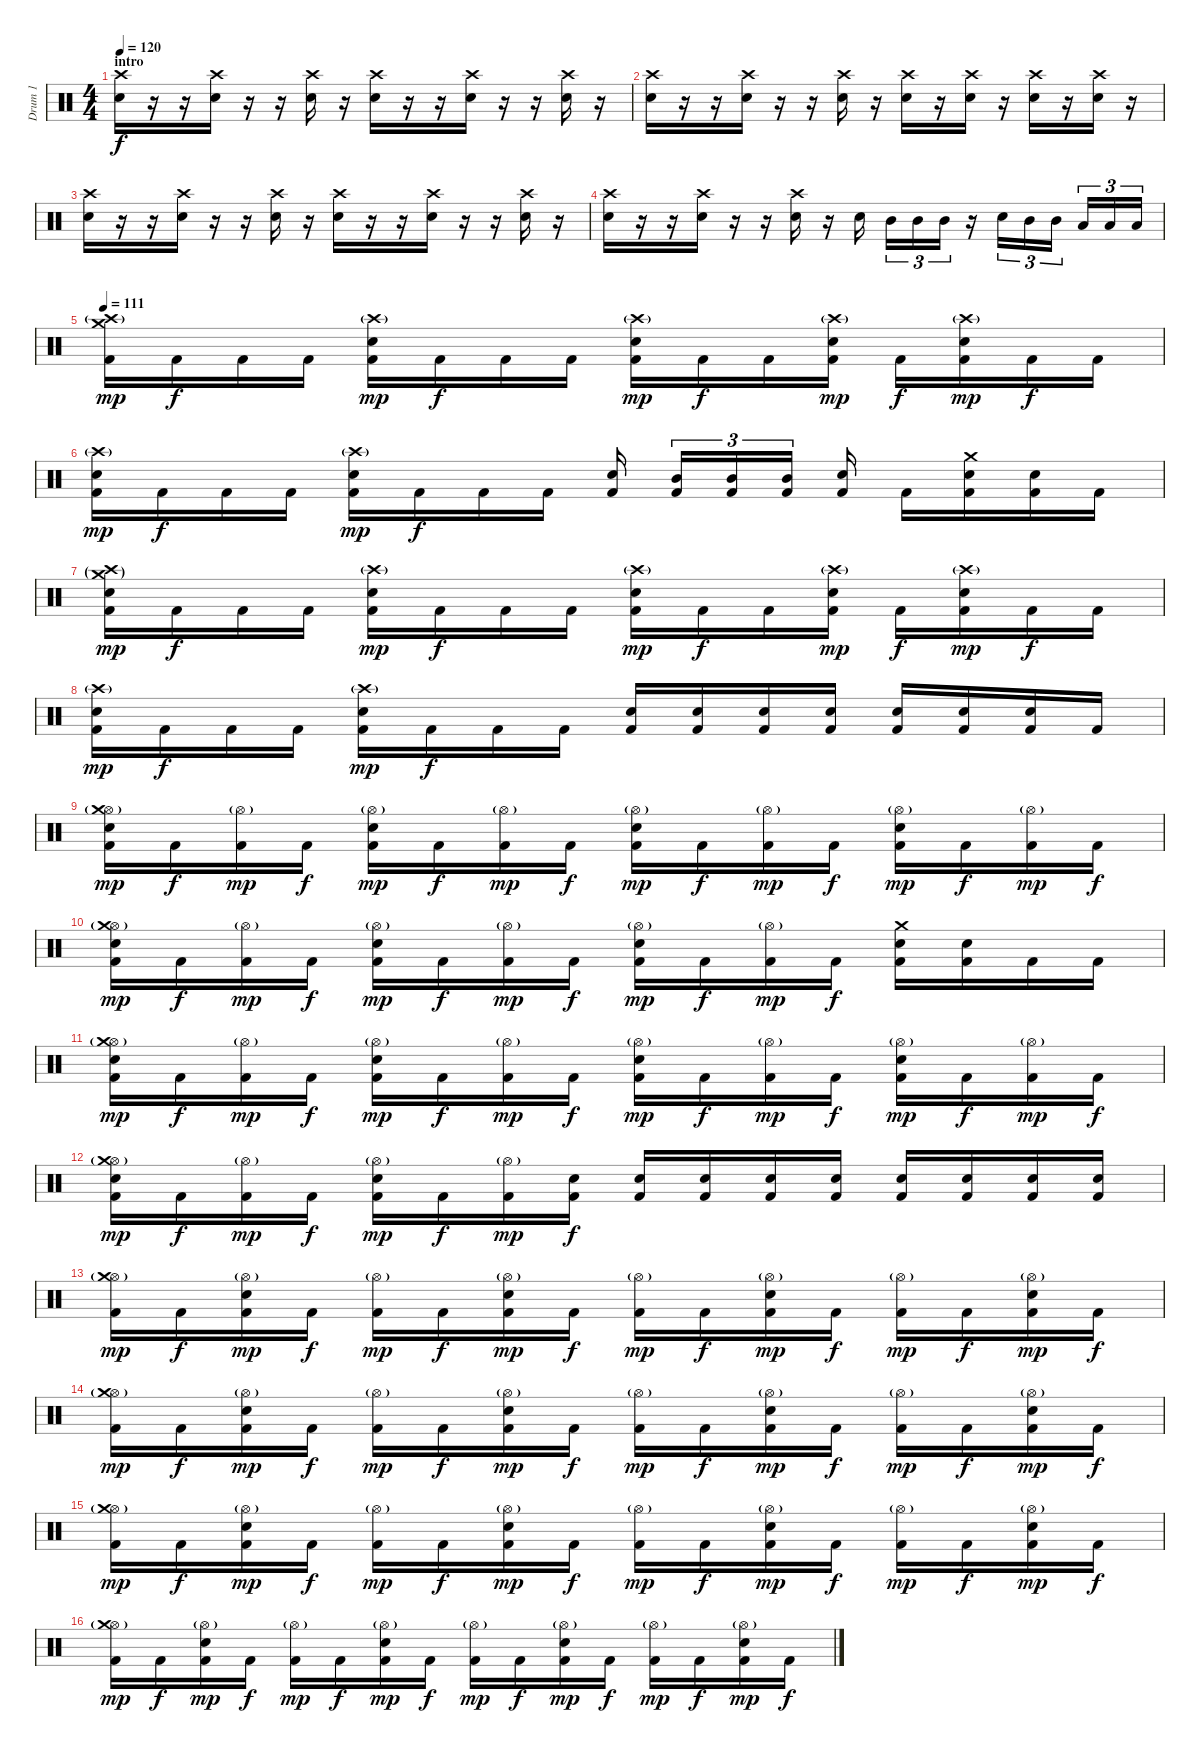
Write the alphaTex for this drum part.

\track ("Drum 1" "Drum 1") {instrument percussion}
\staff {score}
\articulation defaults
\ts (4 4)
\section ("" "intro")
\tempo 120
\clef neutral
\ks c
("Crash high (hit)" "Electric Snare (hit)").16{dy f} r.16 r.16 ("Crash high (hit)" "Electric Snare (hit)").16 r.16 r.16 ("Crash high (hit)" "Electric Snare (hit)").16 r.16 ("Crash high (hit)" "Electric Snare (hit)").16 r.16 r.16 ("Crash high (hit)" "Electric Snare (hit)").16 r.16 r.16 ("Crash high (hit)" "Electric Snare (hit)").16 r.16 |
("Crash high (hit)" "Electric Snare (hit)").16 r.16 r.16 ("Crash high (hit)" "Electric Snare (hit)").16 r.16 r.16 ("Crash high (hit)" "Electric Snare (hit)").16 r.16 ("Crash high (hit)" "Electric Snare (hit)").16 r.16 ("Crash high (hit)" "Electric Snare (hit)").16 r.16 ("Crash high (hit)" "Electric Snare (hit)").16 r.16 ("Crash high (hit)" "Electric Snare (hit)").16 r.16 |
("Crash high (hit)" "Electric Snare (hit)").16 r.16 r.16 ("Crash high (hit)" "Electric Snare (hit)").16 r.16 r.16 ("Crash high (hit)" "Electric Snare (hit)").16 r.16 ("Crash high (hit)" "Electric Snare (hit)").16 r.16 r.16 ("Crash high (hit)" "Electric Snare (hit)").16 r.16 r.16 ("Crash high (hit)" "Electric Snare (hit)").16 r.16 |
("Crash high (hit)" "Electric Snare (hit)").16 r.16 r.16 ("Crash high (hit)" "Electric Snare (hit)").16 r.16 r.16 ("Crash high (hit)" "Electric Snare (hit)").16 r.16 "Electric Snare (hit)".16 "Mid Tom (hit)".16{tu (3 2)} "Mid Tom (hit)".16{tu (3 2)} "Mid Tom (hit)".16{tu (3 2)} r.16 "Electric Snare (hit)".16{tu (3 2)} "Mid Tom (hit)".16{tu (3 2)} "Mid Tom (hit)".16{tu (3 2)} "Low Tom (hit)".16{tu (3 2)} "Low Tom (hit)".16{tu (3 2)} "Low Tom (hit)".16{tu (3 2)} |
\tempo 111
("Kick (hit) 2" "Crash high (hit)"{g} "Crash medium (hit)").16{dy mp} "Kick (hit) 2".16{dy f} "Kick (hit) 2".16 "Kick (hit) 2".16 ("Kick (hit) 2" "Crash high (hit)"{g} "Electric Snare (hit)").16{dy mp} "Kick (hit) 2".16{dy f} "Kick (hit) 2".16 "Kick (hit) 2".16 ("Kick (hit) 2" "Crash high (hit)"{g} "Electric Snare (hit)").16{dy mp} "Kick (hit) 2".16{dy f} "Kick (hit) 2".16 ("Kick (hit) 2" "Crash high (hit)"{g} "Electric Snare (hit)").16{dy mp} "Kick (hit) 2".16{dy f} ("Kick (hit) 2" "Crash high (hit)"{g} "Electric Snare (hit)").16{dy mp} "Kick (hit) 2".16{dy f} "Kick (hit) 2".16 |
("Kick (hit) 2" "Crash high (hit)"{g} "Electric Snare (hit)").16{dy mp} "Kick (hit) 2".16{dy f} "Kick (hit) 2".16 "Kick (hit) 2".16 ("Kick (hit) 2" "Crash high (hit)"{g} "Electric Snare (hit)").16{dy mp} "Kick (hit) 2".16{dy f} "Kick (hit) 2".16 "Kick (hit) 2".16 ("Kick (hit) 2" "Electric Snare (hit)").16 ("Kick (hit) 2" "Mid Tom (hit)").16{tu (3 2)} ("Kick (hit) 2" "Mid Tom (hit)").16{tu (3 2)} ("Kick (hit) 2" "Mid Tom (hit)").16{tu (3 2)} ("Kick (hit) 2" "Electric Snare (hit)").16 "Kick (hit) 2".16 ("Kick (hit) 2" "Crash medium (hit)" "Electric Snare (hit)").16 ("Kick (hit) 2" "Electric Snare (hit)").16 "Kick (hit) 2".16 |
("Kick (hit) 2" "Crash high (hit)"{g} "Crash medium (hit)"{g} "Electric Snare (hit)").16{dy mp} "Kick (hit) 2".16{dy f} "Kick (hit) 2".16 "Kick (hit) 2".16 ("Kick (hit) 2" "Crash high (hit)"{g} "Electric Snare (hit)").16{dy mp} "Kick (hit) 2".16{dy f} "Kick (hit) 2".16 "Kick (hit) 2".16 ("Kick (hit) 2" "Crash high (hit)"{g} "Electric Snare (hit)").16{dy mp} "Kick (hit) 2".16{dy f} "Kick (hit) 2".16 ("Kick (hit) 2" "Crash high (hit)"{g} "Electric Snare (hit)").16{dy mp} "Kick (hit) 2".16{dy f} ("Kick (hit) 2" "Crash high (hit)"{g} "Electric Snare (hit)").16{dy mp} "Kick (hit) 2".16{dy f} "Kick (hit) 2".16 |
("Kick (hit) 2" "Crash high (hit)"{g} "Electric Snare (hit)").16{dy mp} "Kick (hit) 2".16{dy f} "Kick (hit) 2".16 "Kick (hit) 2".16 ("Kick (hit) 2" "Crash high (hit)"{g} "Electric Snare (hit)").16{dy mp} "Kick (hit) 2".16{dy f} "Kick (hit) 2".16 "Kick (hit) 2".16 ("Kick (hit) 2" "Electric Snare (hit)").16 ("Kick (hit) 2" "Electric Snare (hit)").16 ("Kick (hit) 2" "Electric Snare (hit)").16 ("Kick (hit) 2" "Electric Snare (hit)").16 ("Kick (hit) 2" "Electric Snare (hit)").16 ("Kick (hit) 2" "Electric Snare (hit)").16 ("Kick (hit) 2" "Electric Snare (hit)").16 "Kick (hit) 2".16 |
("Kick (hit) 2" "Hi-Hat (open)"{g} "Crash medium (hit)" "Electric Snare (hit)").16{dy mp} "Kick (hit) 2".16{dy f} ("Kick (hit) 2" "Hi-Hat (open)"{g}).16{dy mp} "Kick (hit) 2".16{dy f} ("Kick (hit) 2" "Hi-Hat (open)"{g} "Electric Snare (hit)").16{dy mp} "Kick (hit) 2".16{dy f} ("Kick (hit) 2" "Hi-Hat (open)"{g}).16{dy mp} "Kick (hit) 2".16{dy f} ("Kick (hit) 2" "Hi-Hat (open)"{g} "Electric Snare (hit)").16{dy mp} "Kick (hit) 2".16{dy f} ("Kick (hit) 2" "Hi-Hat (open)"{g}).16{dy mp} "Kick (hit) 2".16{dy f} ("Kick (hit) 2" "Hi-Hat (open)"{g} "Electric Snare (hit)").16{dy mp} "Kick (hit) 2".16{dy f} ("Kick (hit) 2" "Hi-Hat (open)"{g}).16{dy mp} "Kick (hit) 2".16{dy f} |
("Kick (hit) 2" "Hi-Hat (open)"{g} "Crash medium (hit)" "Electric Snare (hit)").16{dy mp} "Kick (hit) 2".16{dy f} ("Kick (hit) 2" "Hi-Hat (open)"{g}).16{dy mp} "Kick (hit) 2".16{dy f} ("Kick (hit) 2" "Hi-Hat (open)"{g} "Electric Snare (hit)").16{dy mp} "Kick (hit) 2".16{dy f} ("Kick (hit) 2" "Hi-Hat (open)"{g}).16{dy mp} "Kick (hit) 2".16{dy f} ("Kick (hit) 2" "Hi-Hat (open)"{g} "Electric Snare (hit)").16{dy mp} "Kick (hit) 2".16{dy f} ("Kick (hit) 2" "Hi-Hat (open)"{g}).16{dy mp} "Kick (hit) 2".16{dy f} ("Kick (hit) 2" "Crash medium (hit)" "Electric Snare (hit)").16 ("Kick (hit) 2" "Electric Snare (hit)").16 "Kick (hit) 2".16 "Kick (hit) 2".16 |
("Kick (hit) 2" "Hi-Hat (open)"{g} "Crash medium (hit)" "Electric Snare (hit)").16{dy mp} "Kick (hit) 2".16{dy f} ("Kick (hit) 2" "Hi-Hat (open)"{g}).16{dy mp} "Kick (hit) 2".16{dy f} ("Kick (hit) 2" "Hi-Hat (open)"{g} "Electric Snare (hit)").16{dy mp} "Kick (hit) 2".16{dy f} ("Kick (hit) 2" "Hi-Hat (open)"{g}).16{dy mp} "Kick (hit) 2".16{dy f} ("Kick (hit) 2" "Hi-Hat (open)"{g} "Electric Snare (hit)").16{dy mp} "Kick (hit) 2".16{dy f} ("Kick (hit) 2" "Hi-Hat (open)"{g}).16{dy mp} "Kick (hit) 2".16{dy f} ("Kick (hit) 2" "Hi-Hat (open)"{g} "Electric Snare (hit)").16{dy mp} "Kick (hit) 2".16{dy f} ("Kick (hit) 2" "Hi-Hat (open)"{g}).16{dy mp} "Kick (hit) 2".16{dy f} |
("Kick (hit) 2" "Hi-Hat (open)"{g} "Crash medium (hit)" "Electric Snare (hit)").16{dy mp} "Kick (hit) 2".16{dy f} ("Kick (hit) 2" "Hi-Hat (open)"{g}).16{dy mp} "Kick (hit) 2".16{dy f} ("Kick (hit) 2" "Hi-Hat (open)"{g} "Electric Snare (hit)").16{dy mp} "Kick (hit) 2".16{dy f} ("Kick (hit) 2" "Hi-Hat (open)"{g}).16{dy mp} ("Kick (hit) 2" "Electric Snare (hit)").16{dy f} ("Kick (hit) 2" "Electric Snare (hit)").16 ("Kick (hit) 2" "Electric Snare (hit)").16 ("Kick (hit) 2" "Electric Snare (hit)").16 ("Kick (hit) 2" "Electric Snare (hit)").16 ("Kick (hit) 2" "Electric Snare (hit)").16 ("Kick (hit) 2" "Electric Snare (hit)").16 ("Kick (hit) 2" "Electric Snare (hit)").16 ("Kick (hit) 2" "Electric Snare (hit)").16 |
("Kick (hit) 2" "Hi-Hat (open)"{g} "Crash medium (hit)").16{dy mp} "Kick (hit) 2".16{dy f} ("Kick (hit) 2" "Hi-Hat (open)"{g} "Electric Snare (hit)").16{dy mp} "Kick (hit) 2".16{dy f} ("Kick (hit) 2" "Hi-Hat (open)"{g}).16{dy mp} "Kick (hit) 2".16{dy f} ("Kick (hit) 2" "Hi-Hat (open)"{g} "Electric Snare (hit)").16{dy mp} "Kick (hit) 2".16{dy f} ("Kick (hit) 2" "Hi-Hat (open)"{g}).16{dy mp} "Kick (hit) 2".16{dy f} ("Kick (hit) 2" "Hi-Hat (open)"{g} "Electric Snare (hit)").16{dy mp} "Kick (hit) 2".16{dy f} ("Kick (hit) 2" "Hi-Hat (open)"{g}).16{dy mp} "Kick (hit) 2".16{dy f} ("Kick (hit) 2" "Hi-Hat (open)"{g} "Electric Snare (hit)").16{dy mp} "Kick (hit) 2".16{dy f} |
("Kick (hit) 2" "Hi-Hat (open)"{g} "Crash medium (hit)").16{dy mp} "Kick (hit) 2".16{dy f} ("Kick (hit) 2" "Hi-Hat (open)"{g} "Electric Snare (hit)").16{dy mp} "Kick (hit) 2".16{dy f} ("Kick (hit) 2" "Hi-Hat (open)"{g}).16{dy mp} "Kick (hit) 2".16{dy f} ("Kick (hit) 2" "Hi-Hat (open)"{g} "Electric Snare (hit)").16{dy mp} "Kick (hit) 2".16{dy f} ("Kick (hit) 2" "Hi-Hat (open)"{g}).16{dy mp} "Kick (hit) 2".16{dy f} ("Kick (hit) 2" "Hi-Hat (open)"{g} "Electric Snare (hit)").16{dy mp} "Kick (hit) 2".16{dy f} ("Kick (hit) 2" "Hi-Hat (open)"{g}).16{dy mp} "Kick (hit) 2".16{dy f} ("Kick (hit) 2" "Hi-Hat (open)"{g} "Electric Snare (hit)").16{dy mp} "Kick (hit) 2".16{dy f} |
("Kick (hit) 2" "Hi-Hat (open)"{g} "Crash medium (hit)").16{dy mp} "Kick (hit) 2".16{dy f} ("Kick (hit) 2" "Hi-Hat (open)"{g} "Electric Snare (hit)").16{dy mp} "Kick (hit) 2".16{dy f} ("Kick (hit) 2" "Hi-Hat (open)"{g}).16{dy mp} "Kick (hit) 2".16{dy f} ("Kick (hit) 2" "Hi-Hat (open)"{g} "Electric Snare (hit)").16{dy mp} "Kick (hit) 2".16{dy f} ("Kick (hit) 2" "Hi-Hat (open)"{g}).16{dy mp} "Kick (hit) 2".16{dy f} ("Kick (hit) 2" "Hi-Hat (open)"{g} "Electric Snare (hit)").16{dy mp} "Kick (hit) 2".16{dy f} ("Kick (hit) 2" "Hi-Hat (open)"{g}).16{dy mp} "Kick (hit) 2".16{dy f} ("Kick (hit) 2" "Hi-Hat (open)"{g} "Electric Snare (hit)").16{dy mp} "Kick (hit) 2".16{dy f} |
("Kick (hit) 2" "Hi-Hat (open)"{g} "Crash medium (hit)").16{dy mp} "Kick (hit) 2".16{dy f} ("Kick (hit) 2" "Hi-Hat (open)"{g} "Electric Snare (hit)").16{dy mp} "Kick (hit) 2".16{dy f} ("Kick (hit) 2" "Hi-Hat (open)"{g}).16{dy mp} "Kick (hit) 2".16{dy f} ("Kick (hit) 2" "Hi-Hat (open)"{g} "Electric Snare (hit)").16{dy mp} "Kick (hit) 2".16{dy f} ("Kick (hit) 2" "Hi-Hat (open)"{g}).16{dy mp} "Kick (hit) 2".16{dy f} ("Kick (hit) 2" "Hi-Hat (open)"{g} "Electric Snare (hit)").16{dy mp} "Kick (hit) 2".16{dy f} ("Kick (hit) 2" "Hi-Hat (open)"{g}).16{dy mp} "Kick (hit) 2".16{dy f} ("Kick (hit) 2" "Hi-Hat (open)"{g} "Electric Snare (hit)").16{dy mp} "Kick (hit) 2".16{dy f}
